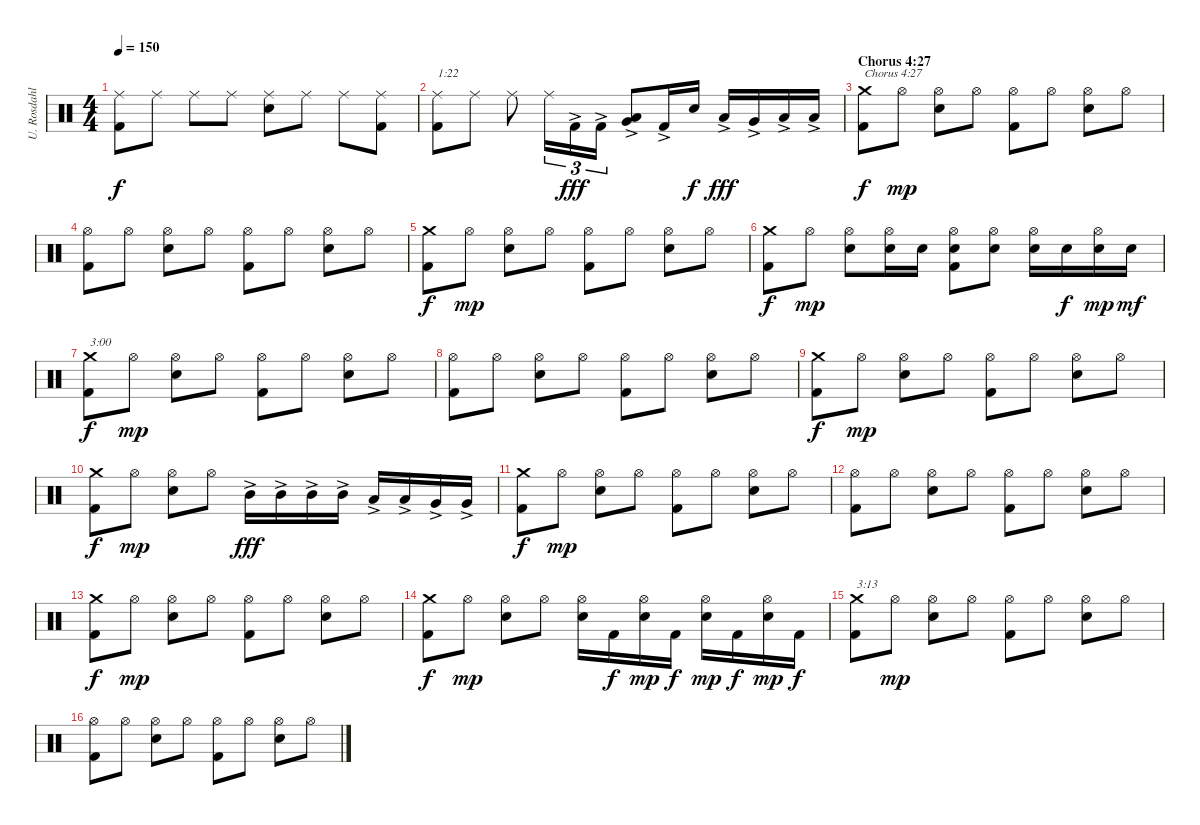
\track ("U. Rosdahl" "U. Rosdahl") {instrument percussion}
\staff {score}
\articulation defaults
\ts (4 4)
\tempo 150
\clef neutral
\ks c
("Kick (hit) 2" "Ride (middle)").8{dy f} "Ride (middle)".8 "Ride (middle)".8 "Ride (middle)".8 ("Electric Snare (hit)" "Ride (middle)").8 "Ride (middle)".8 "Ride (middle)".8 ("Kick (hit) 2" "Ride (middle)").8 |
("Kick (hit) 2" "Ride (middle)").8{txt "1:22"} "Ride (middle)".8 "Ride (middle)".8 "Ride (middle)".16{tu (3 2)} "Kick (hit) 2"{ac}.16{tu (3 2) dy fff} "Kick (hit) 2"{ac}.16{tu (3 2)} ("Low Tom (hit)"{ac} "Very Low Tom (hit)"{ac}).8 "Kick (hit) 2"{ac}.16 "Electric Snare (hit)".16{dy f} "Low Tom (hit)"{ac}.16{dy fff} "Very Low Tom (hit)"{ac}.16 "Low Floor Tom (hit)"{ac}.16 "Low Floor Tom (hit)"{ac}.16 |
\section ("" "Chorus 4:27")
("Kick (hit) 2" "Crash medium (hit)").8{txt "Chorus 4:27" dy f} "Hi-Hat (open)".8{dy mp} ("Electric Snare (hit)" "Hi-Hat (open)").8 "Hi-Hat (open)".8 ("Kick (hit) 2" "Hi-Hat (open)").8 "Hi-Hat (open)".8 ("Electric Snare (hit)" "Hi-Hat (open)").8 "Hi-Hat (open)".8 |
("Kick (hit) 2" "Hi-Hat (open)").8 "Hi-Hat (open)".8 ("Electric Snare (hit)" "Hi-Hat (open)").8 "Hi-Hat (open)".8 ("Kick (hit) 2" "Hi-Hat (open)").8 "Hi-Hat (open)".8 ("Electric Snare (hit)" "Hi-Hat (open)").8 "Hi-Hat (open)".8 |
("Kick (hit) 2" "Crash medium (hit)").8{dy f} "Hi-Hat (open)".8{dy mp} ("Electric Snare (hit)" "Hi-Hat (open)").8 "Hi-Hat (open)".8 ("Kick (hit) 2" "Hi-Hat (open)").8 "Hi-Hat (open)".8 ("Electric Snare (hit)" "Hi-Hat (open)").8 "Hi-Hat (open)".8 |
("Kick (hit) 2" "Crash medium (hit)").8{dy f} "Hi-Hat (open)".8{dy mp} ("Electric Snare (hit)" "Hi-Hat (open)").8 ("Electric Snare (hit)" "Hi-Hat (open)").16 "Electric Snare (hit)".16 ("Kick (hit) 2" "Electric Snare (hit)" "Hi-Hat (open)").8 ("Electric Snare (hit)" "Hi-Hat (open)").8 ("Electric Snare (hit)" "Hi-Hat (open)").16 "Electric Snare (hit)".16{dy f} ("Electric Snare (hit)" "Hi-Hat (open)").16{dy mp} "Electric Snare (hit)".16{dy mf} |
("Kick (hit) 2" "Crash medium (hit)").8{txt "3:00" dy f} "Hi-Hat (open)".8{dy mp} ("Electric Snare (hit)" "Hi-Hat (open)").8 "Hi-Hat (open)".8 ("Kick (hit) 2" "Hi-Hat (open)").8 "Hi-Hat (open)".8 ("Electric Snare (hit)" "Hi-Hat (open)").8 "Hi-Hat (open)".8 |
("Kick (hit) 2" "Hi-Hat (open)").8 "Hi-Hat (open)".8 ("Electric Snare (hit)" "Hi-Hat (open)").8 "Hi-Hat (open)".8 ("Kick (hit) 2" "Hi-Hat (open)").8 "Hi-Hat (open)".8 ("Electric Snare (hit)" "Hi-Hat (open)").8 "Hi-Hat (open)".8 |
("Kick (hit) 2" "Crash medium (hit)").8{dy f} "Hi-Hat (open)".8{dy mp} ("Electric Snare (hit)" "Hi-Hat (open)").8 "Hi-Hat (open)".8 ("Kick (hit) 2" "Hi-Hat (open)").8 "Hi-Hat (open)".8 ("Electric Snare (hit)" "Hi-Hat (open)").8 "Hi-Hat (open)".8 |
("Kick (hit) 2" "Crash medium (hit)").8{dy f} "Hi-Hat (open)".8{dy mp} ("Electric Snare (hit)" "Hi-Hat (open)").8 "Hi-Hat (open)".8 "Mid Tom (hit)"{ac}.16{dy fff} "Mid Tom (hit)"{ac}.16 "Mid Tom (hit)"{ac}.16 "Mid Tom (hit)"{ac}.16 "Low Tom (hit)"{ac}.16 "Low Tom (hit)"{ac}.16 "Very Low Tom (hit)"{ac}.16 "Very Low Tom (hit)"{ac}.16 |
("Kick (hit) 2" "Crash medium (hit)").8{dy f} "Hi-Hat (open)".8{dy mp} ("Electric Snare (hit)" "Hi-Hat (open)").8 "Hi-Hat (open)".8 ("Kick (hit) 2" "Hi-Hat (open)").8 "Hi-Hat (open)".8 ("Electric Snare (hit)" "Hi-Hat (open)").8 "Hi-Hat (open)".8 |
("Kick (hit) 2" "Hi-Hat (open)").8 "Hi-Hat (open)".8 ("Electric Snare (hit)" "Hi-Hat (open)").8 "Hi-Hat (open)".8 ("Kick (hit) 2" "Hi-Hat (open)").8 "Hi-Hat (open)".8 ("Electric Snare (hit)" "Hi-Hat (open)").8 "Hi-Hat (open)".8 |
("Kick (hit) 2" "Crash medium (hit)").8{dy f} "Hi-Hat (open)".8{dy mp} ("Electric Snare (hit)" "Hi-Hat (open)").8 "Hi-Hat (open)".8 ("Kick (hit) 2" "Hi-Hat (open)").8 "Hi-Hat (open)".8 ("Electric Snare (hit)" "Hi-Hat (open)").8 "Hi-Hat (open)".8 |
("Kick (hit) 2" "Crash medium (hit)").8{dy f} "Hi-Hat (open)".8{dy mp} ("Electric Snare (hit)" "Hi-Hat (open)").8 "Hi-Hat (open)".8 ("Electric Snare (hit)" "Hi-Hat (open)").16 "Kick (hit) 2".16{dy f} ("Electric Snare (hit)" "Hi-Hat (open)").16{dy mp} "Kick (hit) 2".16{dy f} ("Electric Snare (hit)" "Hi-Hat (open)").16{dy mp} "Kick (hit) 2".16{dy f} ("Electric Snare (hit)" "Hi-Hat (open)").16{dy mp} "Kick (hit) 2".16{dy f} |
("Kick (hit) 2" "Crash medium (hit)").8{txt "3:13"} "Hi-Hat (open)".8{dy mp} ("Electric Snare (hit)" "Hi-Hat (open)").8 "Hi-Hat (open)".8 ("Kick (hit) 2" "Hi-Hat (open)").8 "Hi-Hat (open)".8 ("Electric Snare (hit)" "Hi-Hat (open)").8 "Hi-Hat (open)".8 |
("Kick (hit) 2" "Hi-Hat (open)").8 "Hi-Hat (open)".8 ("Electric Snare (hit)" "Hi-Hat (open)").8 "Hi-Hat (open)".8 ("Kick (hit) 2" "Hi-Hat (open)").8 "Hi-Hat (open)".8 ("Electric Snare (hit)" "Hi-Hat (open)").8 "Hi-Hat (open)".8
